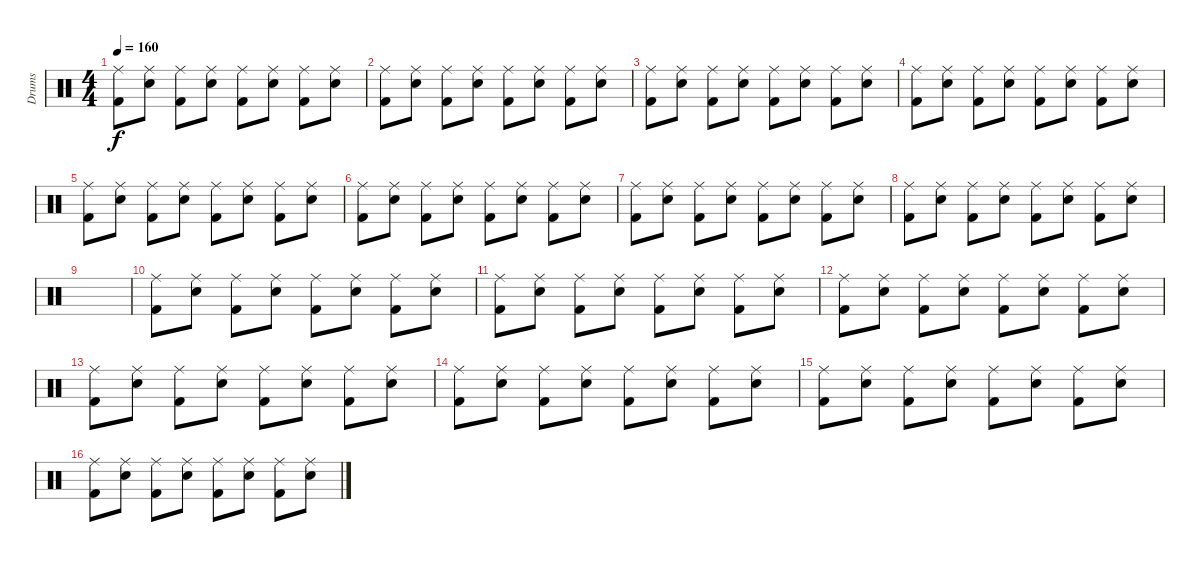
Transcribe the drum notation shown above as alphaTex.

\track ("Drums" "Drums") {instrument percussion}
\staff {score}
\articulation defaults
\ts (4 4)
\tempo 160
\clef neutral
\ks c
("Ride (middle)" "Kick (hit) 2").8{dy f} ("Ride (middle)" "Electric Snare (hit)").8 ("Ride (middle)" "Kick (hit) 2").8 ("Ride (middle)" "Electric Snare (hit)").8 ("Ride (middle)" "Kick (hit) 2").8 ("Ride (middle)" "Electric Snare (hit)").8 ("Ride (middle)" "Kick (hit) 2").8 ("Ride (middle)" "Electric Snare (hit)").8 |
("Ride (middle)" "Kick (hit) 2").8 ("Ride (middle)" "Electric Snare (hit)").8 ("Ride (middle)" "Kick (hit) 2").8 ("Ride (middle)" "Electric Snare (hit)").8 ("Ride (middle)" "Kick (hit) 2").8 ("Ride (middle)" "Electric Snare (hit)").8 ("Ride (middle)" "Kick (hit) 2").8 ("Ride (middle)" "Electric Snare (hit)").8 |
("Ride (middle)" "Kick (hit) 2").8 ("Ride (middle)" "Electric Snare (hit)").8 ("Ride (middle)" "Kick (hit) 2").8 ("Ride (middle)" "Electric Snare (hit)").8 ("Ride (middle)" "Kick (hit) 2").8 ("Ride (middle)" "Electric Snare (hit)").8 ("Ride (middle)" "Kick (hit) 2").8 ("Ride (middle)" "Electric Snare (hit)").8 |
("Ride (middle)" "Kick (hit) 2").8 ("Ride (middle)" "Electric Snare (hit)").8 ("Ride (middle)" "Kick (hit) 2").8 ("Ride (middle)" "Electric Snare (hit)").8 ("Ride (middle)" "Kick (hit) 2").8 ("Ride (middle)" "Electric Snare (hit)").8 ("Ride (middle)" "Kick (hit) 2").8 ("Ride (middle)" "Electric Snare (hit)").8 |
("Ride (middle)" "Kick (hit) 2").8 ("Ride (middle)" "Electric Snare (hit)").8 ("Ride (middle)" "Kick (hit) 2").8 ("Ride (middle)" "Electric Snare (hit)").8 ("Ride (middle)" "Kick (hit) 2").8 ("Ride (middle)" "Electric Snare (hit)").8 ("Ride (middle)" "Kick (hit) 2").8 ("Ride (middle)" "Electric Snare (hit)").8 |
("Ride (middle)" "Kick (hit) 2").8 ("Ride (middle)" "Electric Snare (hit)").8 ("Ride (middle)" "Kick (hit) 2").8 ("Ride (middle)" "Electric Snare (hit)").8 ("Ride (middle)" "Kick (hit) 2").8 ("Ride (middle)" "Electric Snare (hit)").8 ("Ride (middle)" "Kick (hit) 2").8 ("Ride (middle)" "Electric Snare (hit)").8 |
("Ride (middle)" "Kick (hit) 2").8 ("Ride (middle)" "Electric Snare (hit)").8 ("Ride (middle)" "Kick (hit) 2").8 ("Ride (middle)" "Electric Snare (hit)").8 ("Ride (middle)" "Kick (hit) 2").8 ("Ride (middle)" "Electric Snare (hit)").8 ("Ride (middle)" "Kick (hit) 2").8 ("Ride (middle)" "Electric Snare (hit)").8 |
("Ride (middle)" "Kick (hit) 2").8 ("Ride (middle)" "Electric Snare (hit)").8 ("Ride (middle)" "Kick (hit) 2").8 ("Ride (middle)" "Electric Snare (hit)").8 ("Ride (middle)" "Kick (hit) 2").8 ("Ride (middle)" "Electric Snare (hit)").8 ("Ride (middle)" "Kick (hit) 2").8 ("Ride (middle)" "Electric Snare (hit)").8 |
|
("Ride (middle)" "Kick (hit) 2").8 ("Ride (middle)" "Electric Snare (hit)").8 ("Ride (middle)" "Kick (hit) 2").8 ("Ride (middle)" "Electric Snare (hit)").8 ("Ride (middle)" "Kick (hit) 2").8 ("Ride (middle)" "Electric Snare (hit)").8 ("Ride (middle)" "Kick (hit) 2").8 ("Ride (middle)" "Electric Snare (hit)").8 |
("Ride (middle)" "Kick (hit) 2").8 ("Ride (middle)" "Electric Snare (hit)").8 ("Ride (middle)" "Kick (hit) 2").8 ("Ride (middle)" "Electric Snare (hit)").8 ("Ride (middle)" "Kick (hit) 2").8 ("Ride (middle)" "Electric Snare (hit)").8 ("Ride (middle)" "Kick (hit) 2").8 ("Ride (middle)" "Electric Snare (hit)").8 |
("Ride (middle)" "Kick (hit) 2").8 ("Ride (middle)" "Electric Snare (hit)").8 ("Ride (middle)" "Kick (hit) 2").8 ("Ride (middle)" "Electric Snare (hit)").8 ("Ride (middle)" "Kick (hit) 2").8 ("Ride (middle)" "Electric Snare (hit)").8 ("Ride (middle)" "Kick (hit) 2").8 ("Ride (middle)" "Electric Snare (hit)").8 |
("Ride (middle)" "Kick (hit) 2").8 ("Ride (middle)" "Electric Snare (hit)").8 ("Ride (middle)" "Kick (hit) 2").8 ("Ride (middle)" "Electric Snare (hit)").8 ("Ride (middle)" "Kick (hit) 2").8 ("Ride (middle)" "Electric Snare (hit)").8 ("Ride (middle)" "Kick (hit) 2").8 ("Ride (middle)" "Electric Snare (hit)").8 |
("Ride (middle)" "Kick (hit) 2").8 ("Ride (middle)" "Electric Snare (hit)").8 ("Ride (middle)" "Kick (hit) 2").8 ("Ride (middle)" "Electric Snare (hit)").8 ("Ride (middle)" "Kick (hit) 2").8 ("Ride (middle)" "Electric Snare (hit)").8 ("Ride (middle)" "Kick (hit) 2").8 ("Ride (middle)" "Electric Snare (hit)").8 |
("Ride (middle)" "Kick (hit) 2").8 ("Ride (middle)" "Electric Snare (hit)").8 ("Ride (middle)" "Kick (hit) 2").8 ("Ride (middle)" "Electric Snare (hit)").8 ("Ride (middle)" "Kick (hit) 2").8 ("Ride (middle)" "Electric Snare (hit)").8 ("Ride (middle)" "Kick (hit) 2").8 ("Ride (middle)" "Electric Snare (hit)").8 |
("Ride (middle)" "Kick (hit) 2").8 ("Ride (middle)" "Electric Snare (hit)").8 ("Ride (middle)" "Kick (hit) 2").8 ("Ride (middle)" "Electric Snare (hit)").8 ("Ride (middle)" "Kick (hit) 2").8 ("Ride (middle)" "Electric Snare (hit)").8 ("Ride (middle)" "Kick (hit) 2").8 ("Ride (middle)" "Electric Snare (hit)").8
